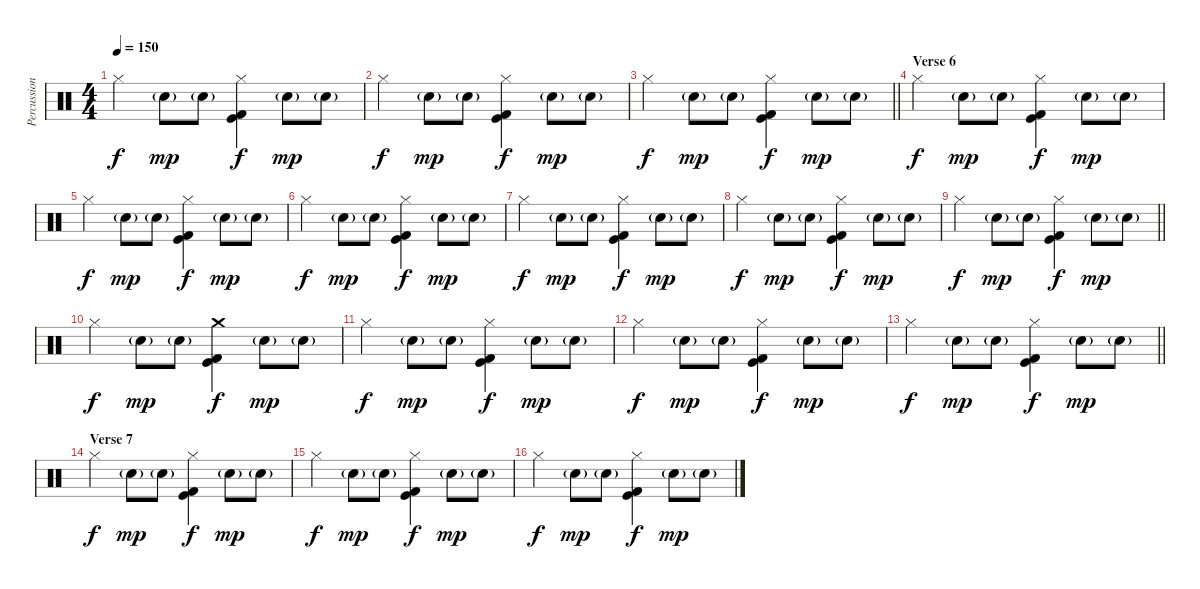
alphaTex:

\track ("Percussion" "Percussion") {instrument percussion}
\staff {score}
\articulation defaults
\ts (4 4)
\tempo 150
\clef neutral
\ks c "Hi-Hat (closed)".4{dy f} "Hand Clap (hit)"{g}.8{dy mp} "Hand Clap (hit)"{g}.8
("Hi-Hat (closed)" "Kick (hit)" "Kick (hit) 2").4{dy f} "Hand Clap (hit)"{g}.8{dy mp} "Hand Clap (hit)"{g}.8 |
"Hi-Hat (closed)".4{dy f} "Hand Clap (hit)"{g}.8{dy mp} "Hand Clap (hit)"{g}.8 ("Hi-Hat (closed)" "Kick (hit)" "Kick (hit) 2").4{dy f} "Hand Clap (hit)"{g}.8{dy mp} "Hand Clap (hit)"{g}.8 |
\barLineRight lightlight "Hi-Hat (closed)".4{dy f} "Hand Clap (hit)"{g}.8{dy mp} "Hand Clap (hit)"{g}.8
("Hi-Hat (closed)" "Kick (hit)" "Kick (hit) 2").4{dy f} "Hand Clap (hit)"{g}.8{dy mp} "Hand Clap (hit)"{g}.8 |
\section ("" "Verse 6")
"Hi-Hat (closed)".4{dy f} "Hand Clap (hit)"{g}.8{dy mp} "Hand Clap (hit)"{g}.8 ("Hi-Hat (closed)" "Kick (hit)" "Kick (hit) 2").4{dy f} "Hand Clap (hit)"{g}.8{dy mp} "Hand Clap (hit)"{g}.8 |
"Hi-Hat (closed)".4{dy f} "Hand Clap (hit)"{g}.8{dy mp} "Hand Clap (hit)"{g}.8 ("Hi-Hat (closed)" "Kick (hit)" "Kick (hit) 2").4{dy f} "Hand Clap (hit)"{g}.8{dy mp} "Hand Clap (hit)"{g}.8 |
"Hi-Hat (closed)".4{dy f} "Hand Clap (hit)"{g}.8{dy mp} "Hand Clap (hit)"{g}.8 ("Hi-Hat (closed)" "Kick (hit)" "Kick (hit) 2").4{dy f} "Hand Clap (hit)"{g}.8{dy mp} "Hand Clap (hit)"{g}.8 |
"Hi-Hat (closed)".4{dy f} "Hand Clap (hit)"{g}.8{dy mp} "Hand Clap (hit)"{g}.8 ("Hi-Hat (closed)" "Kick (hit)" "Kick (hit) 2").4{dy f} "Hand Clap (hit)"{g}.8{dy mp} "Hand Clap (hit)"{g}.8 |
"Hi-Hat (closed)".4{dy f} "Hand Clap (hit)"{g}.8{dy mp} "Hand Clap (hit)"{g}.8 ("Hi-Hat (closed)" "Kick (hit)" "Kick (hit) 2").4{dy f} "Hand Clap (hit)"{g}.8{dy mp} "Hand Clap (hit)"{g}.8 |
\barLineRight lightlight "Hi-Hat (closed)".4{dy f} "Hand Clap (hit)"{g}.8{dy mp} "Hand Clap (hit)"{g}.8
("Hi-Hat (closed)" "Kick (hit)" "Kick (hit) 2").4{dy f} "Hand Clap (hit)"{g}.8{dy mp} "Hand Clap (hit)"{g}.8 |
\section ("" "")
"Hi-Hat (closed)".4{dy f} "Hand Clap (hit)"{g}.8{dy mp} "Hand Clap (hit)"{g}.8 ("Crash medium (hit)" "Kick (hit)" "Kick (hit) 2").4{dy f} "Hand Clap (hit)"{g}.8{dy mp} "Hand Clap (hit)"{g}.8 |
"Hi-Hat (closed)".4{dy f} "Hand Clap (hit)"{g}.8{dy mp} "Hand Clap (hit)"{g}.8 ("Hi-Hat (closed)" "Kick (hit)" "Kick (hit) 2").4{dy f} "Hand Clap (hit)"{g}.8{dy mp} "Hand Clap (hit)"{g}.8 |
"Hi-Hat (closed)".4{dy f} "Hand Clap (hit)"{g}.8{dy mp} "Hand Clap (hit)"{g}.8 ("Hi-Hat (closed)" "Kick (hit)" "Kick (hit) 2").4{dy f} "Hand Clap (hit)"{g}.8{dy mp} "Hand Clap (hit)"{g}.8 |
\barLineRight lightlight "Hi-Hat (closed)".4{dy f} "Hand Clap (hit)"{g}.8{dy mp} "Hand Clap (hit)"{g}.8
("Hi-Hat (closed)" "Kick (hit)" "Kick (hit) 2").4{dy f} "Hand Clap (hit)"{g}.8{dy mp} "Hand Clap (hit)"{g}.8 |
\section ("" "Verse 7")
"Hi-Hat (closed)".4{dy f} "Hand Clap (hit)"{g}.8{dy mp} "Hand Clap (hit)"{g}.8 ("Hi-Hat (closed)" "Kick (hit)" "Kick (hit) 2").4{dy f} "Hand Clap (hit)"{g}.8{dy mp} "Hand Clap (hit)"{g}.8 |
"Hi-Hat (closed)".4{dy f} "Hand Clap (hit)"{g}.8{dy mp} "Hand Clap (hit)"{g}.8 ("Hi-Hat (closed)" "Kick (hit)" "Kick (hit) 2").4{dy f} "Hand Clap (hit)"{g}.8{dy mp} "Hand Clap (hit)"{g}.8 |
"Hi-Hat (closed)".4{dy f} "Hand Clap (hit)"{g}.8{dy mp} "Hand Clap (hit)"{g}.8 ("Hi-Hat (closed)" "Kick (hit)" "Kick (hit) 2").4{dy f} "Hand Clap (hit)"{g}.8{dy mp} "Hand Clap (hit)"{g}.8
